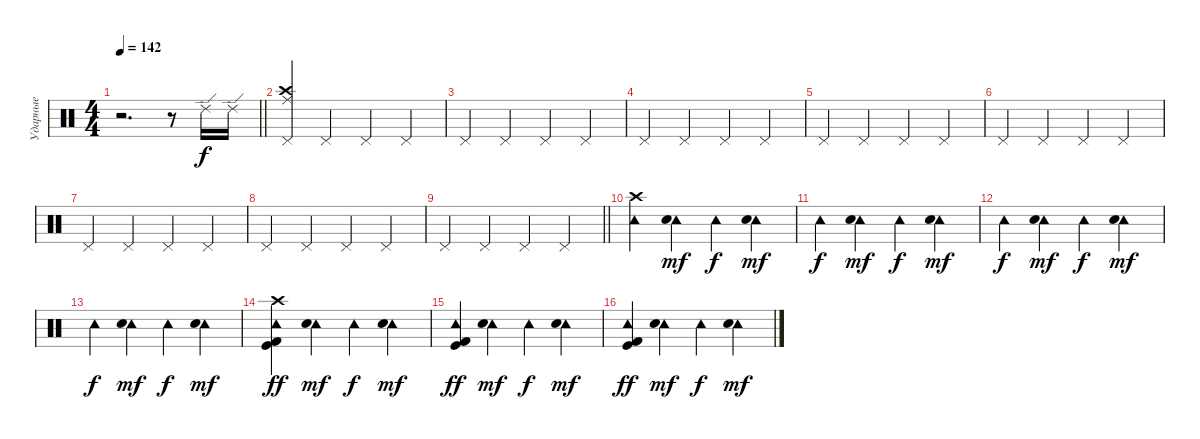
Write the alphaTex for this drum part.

\track ("Ударные" "Ударные") {instrument percussion}
\staff {score}
\articulation defaults
\ts (4 4)
\tempo 142
\clef neutral
\barLineRight lightlight
\ks c
r.2{d dy f} r.8 "Ride (edge) 2".16 "Ride (edge) 2".16 |
\section ("" "")
("Ride (middle)" "Crash high (hit)" "Pedal Hi-Hat (hit)").4 "Pedal Hi-Hat (hit)".4 "Pedal Hi-Hat (hit)".4 "Pedal Hi-Hat (hit)".4 |
"Pedal Hi-Hat (hit)".4 "Pedal Hi-Hat (hit)".4 "Pedal Hi-Hat (hit)".4 "Pedal Hi-Hat (hit)".4 |
"Pedal Hi-Hat (hit)".4 "Pedal Hi-Hat (hit)".4 "Pedal Hi-Hat (hit)".4 "Pedal Hi-Hat (hit)".4 |
"Pedal Hi-Hat (hit)".4 "Pedal Hi-Hat (hit)".4 "Pedal Hi-Hat (hit)".4 "Pedal Hi-Hat (hit)".4 |
"Pedal Hi-Hat (hit)".4 "Pedal Hi-Hat (hit)".4 "Pedal Hi-Hat (hit)".4 "Pedal Hi-Hat (hit)".4 |
"Pedal Hi-Hat (hit)".4 "Pedal Hi-Hat (hit)".4 "Pedal Hi-Hat (hit)".4 "Pedal Hi-Hat (hit)".4 |
"Pedal Hi-Hat (hit)".4 "Pedal Hi-Hat (hit)".4 "Pedal Hi-Hat (hit)".4 "Pedal Hi-Hat (hit)".4 |
\barLineRight lightlight "Pedal Hi-Hat (hit)".4 "Pedal Hi-Hat (hit)".4 "Pedal Hi-Hat (hit)".4 "Pedal Hi-Hat (hit)".4
|
\section ("" "")
("Tambourine (hit)" "Crash high (hit)").4 ("Tambourine (hit)" "Snare (hit) 2").4{dy mf} "Tambourine (hit)".4{dy f} ("Tambourine (hit)" "Snare (hit) 2").4{dy mf} |
"Tambourine (hit)".4{dy f} ("Tambourine (hit)" "Snare (hit) 2").4{dy mf} "Tambourine (hit)".4{dy f} ("Tambourine (hit)" "Snare (hit) 2").4{dy mf} |
"Tambourine (hit)".4{dy f} ("Tambourine (hit)" "Snare (hit) 2").4{dy mf} "Tambourine (hit)".4{dy f} ("Tambourine (hit)" "Snare (hit) 2").4{dy mf} |
"Tambourine (hit)".4{dy f} ("Tambourine (hit)" "Snare (hit) 2").4{dy mf} "Tambourine (hit)".4{dy f} ("Tambourine (hit)" "Snare (hit) 2").4{dy mf} |
("Tambourine (hit)" "Crash high (hit)" "Kick (hit) 2" "Kick (hit)").4{dy ff} ("Tambourine (hit)" "Snare (hit) 2").4{dy mf} "Tambourine (hit)".4{dy f} ("Tambourine (hit)" "Snare (hit) 2").4{dy mf} |
("Tambourine (hit)" "Kick (hit) 2" "Kick (hit)").4{dy ff} ("Tambourine (hit)" "Snare (hit) 2").4{dy mf} "Tambourine (hit)".4{dy f} ("Tambourine (hit)" "Snare (hit) 2").4{dy mf} |
("Tambourine (hit)" "Kick (hit) 2" "Kick (hit)").4{dy ff} ("Tambourine (hit)" "Snare (hit) 2").4{dy mf} "Tambourine (hit)".4{dy f} ("Tambourine (hit)" "Snare (hit) 2").4{dy mf}
